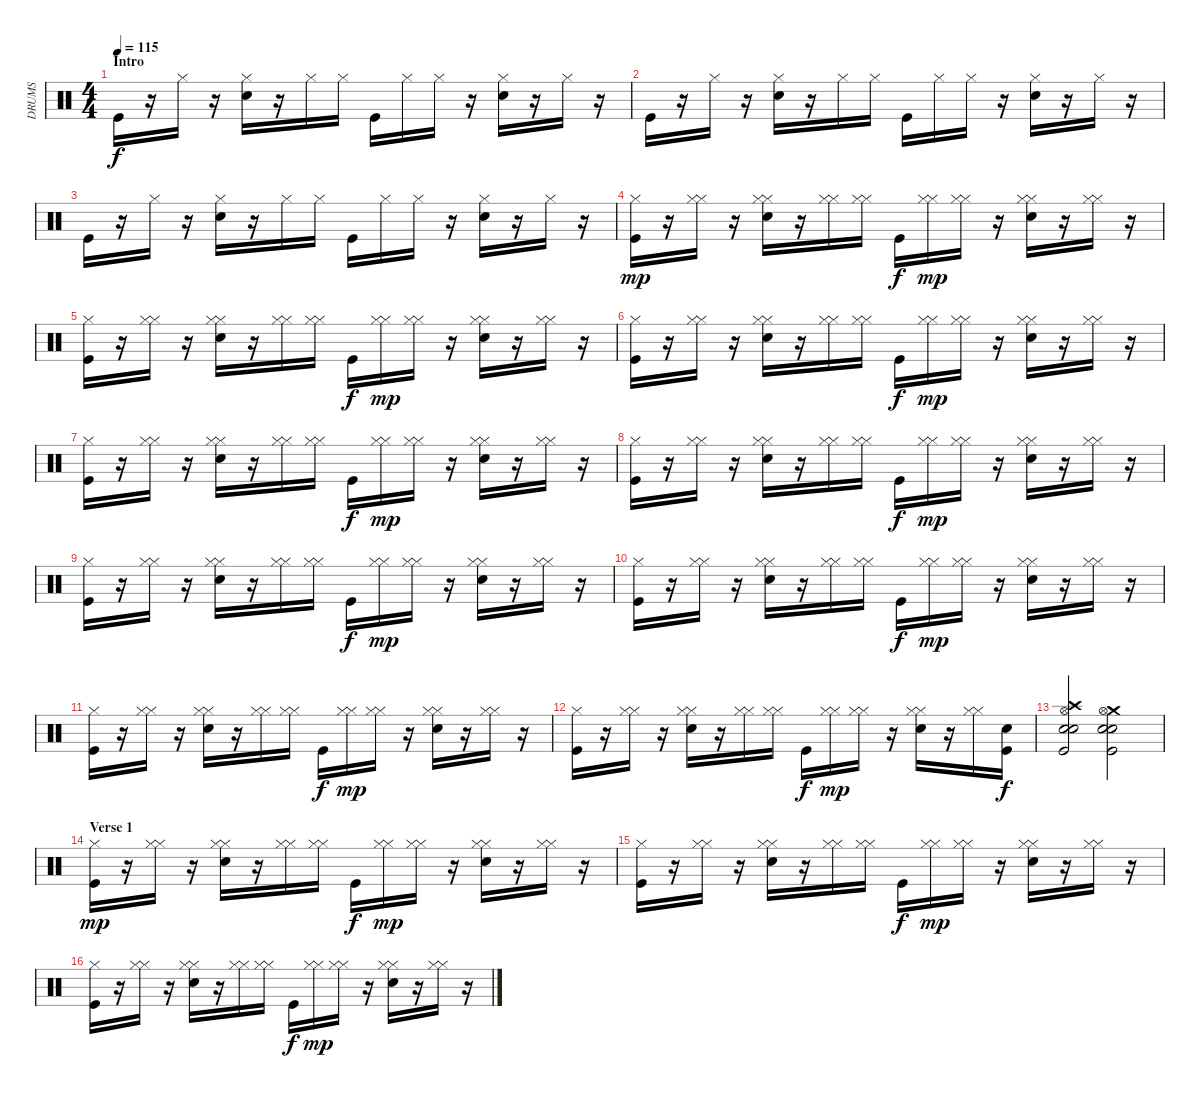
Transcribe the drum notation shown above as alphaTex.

\track ("DRUMS" "DRUMS") {instrument percussion}
\staff {score}
\articulation defaults
\ts (4 4)
\section ("" "Intro")
\tempo 115
\clef neutral
\ks c "Kick (hit)".16{dy f}
r.16 "Hi-Hat (closed)".16 r.16 ("Hi-Hat (closed)" "Snare (hit) 2").16 r.16 "Hi-Hat (closed)".16 "Hi-Hat (closed)".16 "Kick (hit)".16 "Hi-Hat (closed)".16 "Hi-Hat (closed)".16 r.16 ("Hi-Hat (closed)" "Snare (hit) 2").16 r.16 "Hi-Hat (closed)".16 r.16 |
"Kick (hit)".16 r.16 "Hi-Hat (closed)".16 r.16 ("Hi-Hat (closed)" "Snare (hit) 2").16 r.16 "Hi-Hat (closed)".16 "Hi-Hat (closed)".16 "Kick (hit)".16 "Hi-Hat (closed)".16 "Hi-Hat (closed)".16 r.16 ("Hi-Hat (closed)" "Snare (hit) 2").16 r.16 "Hi-Hat (closed)".16 r.16 |
"Kick (hit)".16 r.16 "Hi-Hat (closed)".16 r.16 ("Hi-Hat (closed)" "Snare (hit) 2").16 r.16 "Hi-Hat (closed)".16 "Hi-Hat (closed)".16 "Kick (hit)".16 "Hi-Hat (closed)".16 "Hi-Hat (closed)".16 r.16 ("Hi-Hat (closed)" "Snare (hit) 2").16 r.16 "Hi-Hat (closed)".16 r.16 |
("Kick (hit)" "Hi-Hat (closed)").16{dy mp} r.16 ("Hi-Hat (closed)" "Hi-Hat (closed)").16 r.16 ("Hi-Hat (closed)" "Snare (hit) 2" "Hi-Hat (closed)").16 r.16 ("Hi-Hat (closed)" "Hi-Hat (closed)").16 ("Hi-Hat (closed)" "Hi-Hat (closed)").16 "Kick (hit)".16{dy f} ("Hi-Hat (closed)" "Hi-Hat (closed)").16{dy mp} ("Hi-Hat (closed)" "Hi-Hat (closed)").16 r.16 ("Hi-Hat (closed)" "Snare (hit) 2" "Hi-Hat (closed)").16 r.16 ("Hi-Hat (closed)" "Hi-Hat (closed)").16 r.16 |
("Kick (hit)" "Hi-Hat (closed)").16 r.16 ("Hi-Hat (closed)" "Hi-Hat (closed)").16 r.16 ("Hi-Hat (closed)" "Snare (hit) 2" "Hi-Hat (closed)").16 r.16 ("Hi-Hat (closed)" "Hi-Hat (closed)").16 ("Hi-Hat (closed)" "Hi-Hat (closed)").16 "Kick (hit)".16{dy f} ("Hi-Hat (closed)" "Hi-Hat (closed)").16{dy mp} ("Hi-Hat (closed)" "Hi-Hat (closed)").16 r.16 ("Hi-Hat (closed)" "Snare (hit) 2" "Hi-Hat (closed)").16 r.16 ("Hi-Hat (closed)" "Hi-Hat (closed)").16 r.16 |
("Kick (hit)" "Hi-Hat (closed)").16 r.16 ("Hi-Hat (closed)" "Hi-Hat (closed)").16 r.16 ("Hi-Hat (closed)" "Snare (hit) 2" "Hi-Hat (closed)").16 r.16 ("Hi-Hat (closed)" "Hi-Hat (closed)").16 ("Hi-Hat (closed)" "Hi-Hat (closed)").16 "Kick (hit)".16{dy f} ("Hi-Hat (closed)" "Hi-Hat (closed)").16{dy mp} ("Hi-Hat (closed)" "Hi-Hat (closed)").16 r.16 ("Hi-Hat (closed)" "Snare (hit) 2" "Hi-Hat (closed)").16 r.16 ("Hi-Hat (closed)" "Hi-Hat (closed)").16 r.16 |
("Kick (hit)" "Hi-Hat (closed)").16 r.16 ("Hi-Hat (closed)" "Hi-Hat (closed)").16 r.16 ("Hi-Hat (closed)" "Snare (hit) 2" "Hi-Hat (closed)").16 r.16 ("Hi-Hat (closed)" "Hi-Hat (closed)").16 ("Hi-Hat (closed)" "Hi-Hat (closed)").16 "Kick (hit)".16{dy f} ("Hi-Hat (closed)" "Hi-Hat (closed)").16{dy mp} ("Hi-Hat (closed)" "Hi-Hat (closed)").16 r.16 ("Hi-Hat (closed)" "Snare (hit) 2" "Hi-Hat (closed)").16 r.16 ("Hi-Hat (closed)" "Hi-Hat (closed)").16 r.16 |
("Kick (hit)" "Hi-Hat (closed)").16 r.16 ("Hi-Hat (closed)" "Hi-Hat (closed)").16 r.16 ("Hi-Hat (closed)" "Snare (hit) 2" "Hi-Hat (closed)").16 r.16 ("Hi-Hat (closed)" "Hi-Hat (closed)").16 ("Hi-Hat (closed)" "Hi-Hat (closed)").16 "Kick (hit)".16{dy f} ("Hi-Hat (closed)" "Hi-Hat (closed)").16{dy mp} ("Hi-Hat (closed)" "Hi-Hat (closed)").16 r.16 ("Hi-Hat (closed)" "Snare (hit) 2" "Hi-Hat (closed)").16 r.16 ("Hi-Hat (closed)" "Hi-Hat (closed)").16 r.16 |
("Kick (hit)" "Hi-Hat (closed)").16 r.16 ("Hi-Hat (closed)" "Hi-Hat (closed)").16 r.16 ("Hi-Hat (closed)" "Snare (hit) 2" "Hi-Hat (closed)").16 r.16 ("Hi-Hat (closed)" "Hi-Hat (closed)").16 ("Hi-Hat (closed)" "Hi-Hat (closed)").16 "Kick (hit)".16{dy f} ("Hi-Hat (closed)" "Hi-Hat (closed)").16{dy mp} ("Hi-Hat (closed)" "Hi-Hat (closed)").16 r.16 ("Hi-Hat (closed)" "Snare (hit) 2" "Hi-Hat (closed)").16 r.16 ("Hi-Hat (closed)" "Hi-Hat (closed)").16 r.16 |
("Kick (hit)" "Hi-Hat (closed)").16 r.16 ("Hi-Hat (closed)" "Hi-Hat (closed)").16 r.16 ("Hi-Hat (closed)" "Snare (hit) 2" "Hi-Hat (closed)").16 r.16 ("Hi-Hat (closed)" "Hi-Hat (closed)").16 ("Hi-Hat (closed)" "Hi-Hat (closed)").16 "Kick (hit)".16{dy f} ("Hi-Hat (closed)" "Hi-Hat (closed)").16{dy mp} ("Hi-Hat (closed)" "Hi-Hat (closed)").16 r.16 ("Hi-Hat (closed)" "Snare (hit) 2" "Hi-Hat (closed)").16 r.16 ("Hi-Hat (closed)" "Hi-Hat (closed)").16 r.16 |
("Kick (hit)" "Hi-Hat (closed)").16 r.16 ("Hi-Hat (closed)" "Hi-Hat (closed)").16 r.16 ("Hi-Hat (closed)" "Snare (hit) 2" "Hi-Hat (closed)").16 r.16 ("Hi-Hat (closed)" "Hi-Hat (closed)").16 ("Hi-Hat (closed)" "Hi-Hat (closed)").16 "Kick (hit)".16{dy f} ("Hi-Hat (closed)" "Hi-Hat (closed)").16{dy mp} ("Hi-Hat (closed)" "Hi-Hat (closed)").16 r.16 ("Hi-Hat (closed)" "Snare (hit) 2" "Hi-Hat (closed)").16 r.16 ("Hi-Hat (closed)" "Hi-Hat (closed)").16 r.16 |
("Kick (hit)" "Hi-Hat (closed)").16 r.16 ("Hi-Hat (closed)" "Hi-Hat (closed)").16 r.16 ("Hi-Hat (closed)" "Snare (hit) 2" "Hi-Hat (closed)").16 r.16 ("Hi-Hat (closed)" "Hi-Hat (closed)").16 ("Hi-Hat (closed)" "Hi-Hat (closed)").16 "Kick (hit)".16{dy f} ("Hi-Hat (closed)" "Hi-Hat (closed)").16{dy mp} ("Hi-Hat (closed)" "Hi-Hat (closed)").16 r.16 ("Hi-Hat (closed)" "Snare (hit) 2" "Hi-Hat (closed)").16 r.16 ("Hi-Hat (closed)" "Hi-Hat (closed)").16 ("Snare (hit) 2" "Kick (hit)").16{dy f} |
("Crash high (hit)" "Hi-Hat (open)" "Snare (hit) 2" "Kick (hit)" "Electric Snare (hit)").2 ("Crash medium (hit)" "Hi-Hat (open)" "Snare (hit) 2" "Kick (hit)" "Electric Snare (hit)").2 |
\section ("" "Verse 1")
("Kick (hit)" "Hi-Hat (closed)").16{dy mp} r.16 ("Hi-Hat (closed)" "Hi-Hat (closed)").16 r.16 ("Hi-Hat (closed)" "Snare (hit) 2" "Hi-Hat (closed)").16 r.16 ("Hi-Hat (closed)" "Hi-Hat (closed)").16 ("Hi-Hat (closed)" "Hi-Hat (closed)").16 "Kick (hit)".16{dy f} ("Hi-Hat (closed)" "Hi-Hat (closed)").16{dy mp} ("Hi-Hat (closed)" "Hi-Hat (closed)").16 r.16 ("Hi-Hat (closed)" "Snare (hit) 2" "Hi-Hat (closed)").16 r.16 ("Hi-Hat (closed)" "Hi-Hat (closed)").16 r.16 |
("Kick (hit)" "Hi-Hat (closed)").16 r.16 ("Hi-Hat (closed)" "Hi-Hat (closed)").16 r.16 ("Hi-Hat (closed)" "Snare (hit) 2" "Hi-Hat (closed)").16 r.16 ("Hi-Hat (closed)" "Hi-Hat (closed)").16 ("Hi-Hat (closed)" "Hi-Hat (closed)").16 "Kick (hit)".16{dy f} ("Hi-Hat (closed)" "Hi-Hat (closed)").16{dy mp} ("Hi-Hat (closed)" "Hi-Hat (closed)").16 r.16 ("Hi-Hat (closed)" "Snare (hit) 2" "Hi-Hat (closed)").16 r.16 ("Hi-Hat (closed)" "Hi-Hat (closed)").16 r.16 |
("Kick (hit)" "Hi-Hat (closed)").16 r.16 ("Hi-Hat (closed)" "Hi-Hat (closed)").16 r.16 ("Hi-Hat (closed)" "Snare (hit) 2" "Hi-Hat (closed)").16 r.16 ("Hi-Hat (closed)" "Hi-Hat (closed)").16 ("Hi-Hat (closed)" "Hi-Hat (closed)").16 "Kick (hit)".16{dy f} ("Hi-Hat (closed)" "Hi-Hat (closed)").16{dy mp} ("Hi-Hat (closed)" "Hi-Hat (closed)").16 r.16 ("Hi-Hat (closed)" "Snare (hit) 2" "Hi-Hat (closed)").16 r.16 ("Hi-Hat (closed)" "Hi-Hat (closed)").16 r.16
